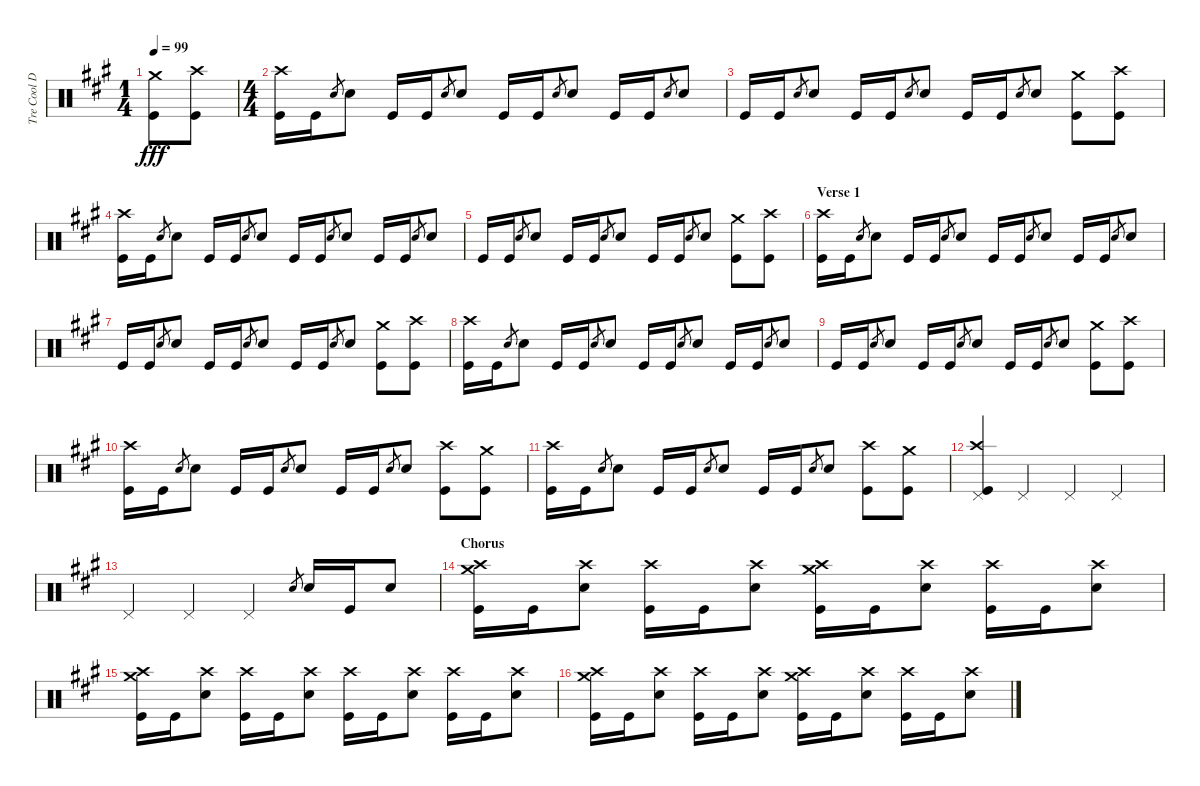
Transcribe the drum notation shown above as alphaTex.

\track ("Tre Cool Drums" "Tre Cool D") {instrument percussion}
\staff {score}
\articulation defaults
\ts (1 4)
\tempo 99
\clef neutral
\ks a
("Kick (hit)" "Crash medium (hit)").8{dy fff} ("Kick (hit)" "Crash high (hit)").8 |
\ts (4 4)
("Crash high (hit)" "Kick (hit)").16 "Kick (hit)".16 "Snare (hit)".8{gr} "Snare (hit) 2".8 "Kick (hit)".16 "Kick (hit)".16 "Snare (hit)".8{gr} "Snare (hit) 2".8 "Kick (hit)".16 "Kick (hit)".16 "Snare (hit)".8{gr} "Snare (hit) 2".8 "Kick (hit)".16 "Kick (hit)".16 "Snare (hit)".8{gr} "Snare (hit) 2".8 |
"Kick (hit)".16 "Kick (hit)".16 "Snare (hit)".8{gr} "Snare (hit) 2".8 "Kick (hit)".16 "Kick (hit)".16 "Snare (hit)".8{gr} "Snare (hit) 2".8 "Kick (hit)".16 "Kick (hit)".16 "Snare (hit)".8{gr} "Snare (hit) 2".8 ("Kick (hit)" "Crash medium (hit)").8 ("Kick (hit)" "Crash high (hit)").8 |
("Crash high (hit)" "Kick (hit)").16 "Kick (hit)".16 "Snare (hit)".8{gr} "Snare (hit) 2".8 "Kick (hit)".16 "Kick (hit)".16 "Snare (hit)".8{gr} "Snare (hit) 2".8 "Kick (hit)".16 "Kick (hit)".16 "Snare (hit)".8{gr} "Snare (hit) 2".8 "Kick (hit)".16 "Kick (hit)".16 "Snare (hit)".8{gr} "Snare (hit) 2".8 |
"Kick (hit)".16 "Kick (hit)".16 "Snare (hit)".8{gr} "Snare (hit) 2".8 "Kick (hit)".16 "Kick (hit)".16 "Snare (hit)".8{gr} "Snare (hit) 2".8 "Kick (hit)".16 "Kick (hit)".16 "Snare (hit)".8{gr} "Snare (hit) 2".8 ("Kick (hit)" "Crash medium (hit)").8 ("Kick (hit)" "Crash high (hit)").8 |
\section ("" "Verse 1")
("Crash high (hit)" "Kick (hit)").16 "Kick (hit)".16 "Snare (hit)".8{gr} "Snare (hit) 2".8 "Kick (hit)".16 "Kick (hit)".16 "Snare (hit)".8{gr} "Snare (hit) 2".8 "Kick (hit)".16 "Kick (hit)".16 "Snare (hit)".8{gr} "Snare (hit) 2".8 "Kick (hit)".16 "Kick (hit)".16 "Snare (hit)".8{gr} "Snare (hit) 2".8 |
"Kick (hit)".16 "Kick (hit)".16 "Snare (hit)".8{gr} "Snare (hit) 2".8 "Kick (hit)".16 "Kick (hit)".16 "Snare (hit)".8{gr} "Snare (hit) 2".8 "Kick (hit)".16 "Kick (hit)".16 "Snare (hit)".8{gr} "Snare (hit) 2".8 ("Kick (hit)" "Crash medium (hit)").8 ("Kick (hit)" "Crash high (hit)").8 |
("Crash high (hit)" "Kick (hit)").16 "Kick (hit)".16 "Snare (hit)".8{gr} "Snare (hit) 2".8 "Kick (hit)".16 "Kick (hit)".16 "Snare (hit)".8{gr} "Snare (hit) 2".8 "Kick (hit)".16 "Kick (hit)".16 "Snare (hit)".8{gr} "Snare (hit) 2".8 "Kick (hit)".16 "Kick (hit)".16 "Snare (hit)".8{gr} "Snare (hit) 2".8 |
"Kick (hit)".16 "Kick (hit)".16 "Snare (hit)".8{gr} "Snare (hit) 2".8 "Kick (hit)".16 "Kick (hit)".16 "Snare (hit)".8{gr} "Snare (hit) 2".8 "Kick (hit)".16 "Kick (hit)".16 "Snare (hit)".8{gr} "Snare (hit) 2".8 ("Kick (hit)" "Crash medium (hit)").8 ("Kick (hit)" "Crash high (hit)").8 |
("Crash high (hit)" "Kick (hit)").16 "Kick (hit)".16 "Snare (hit)".8{gr} "Snare (hit) 2".8 "Kick (hit)".16 "Kick (hit)".16 "Snare (hit)".8{gr} "Snare (hit) 2".8 "Kick (hit)".16 "Kick (hit)".16 "Snare (hit)".8{gr} "Snare (hit) 2".8 ("Kick (hit)" "Crash high (hit)").8 ("Kick (hit)" "Crash medium (hit)").8 |
("Crash high (hit)" "Kick (hit)").16 "Kick (hit)".16 "Snare (hit)".8{gr} "Snare (hit) 2".8 "Kick (hit)".16 "Kick (hit)".16 "Snare (hit)".8{gr} "Snare (hit) 2".8 "Kick (hit)".16 "Kick (hit)".16 "Snare (hit)".8{gr} "Snare (hit) 2".8 ("Kick (hit)" "Crash high (hit)").8 ("Kick (hit)" "Crash medium (hit)").8 |
("Crash high (hit)" "Kick (hit)" "Pedal Hi-Hat (hit)").4 "Pedal Hi-Hat (hit)".4 "Pedal Hi-Hat (hit)".4 "Pedal Hi-Hat (hit)".4 |
"Pedal Hi-Hat (hit)".4 "Pedal Hi-Hat (hit)".4 "Pedal Hi-Hat (hit)".4 "Snare (hit)".8{gr} "Snare (hit) 2".16 "Kick (hit)".16 "Snare (hit) 2".8 |
\section ("" "Chorus")
("Kick (hit)" "Crash high (hit)" "Crash medium (hit)").16 "Kick (hit)".16 ("Snare (hit) 2" "Crash high (hit)").8 ("Kick (hit)" "Crash high (hit)").16 "Kick (hit)".16 ("Snare (hit) 2" "Crash high (hit)").8 ("Kick (hit)" "Crash high (hit)" "Crash medium (hit)").16 "Kick (hit)".16 ("Snare (hit) 2" "Crash high (hit)").8 ("Kick (hit)" "Crash high (hit)").16 "Kick (hit)".16 ("Snare (hit) 2" "Crash high (hit)").8 |
("Kick (hit)" "Crash high (hit)" "Crash medium (hit)").16 "Kick (hit)".16 ("Snare (hit) 2" "Crash high (hit)").8 ("Kick (hit)" "Crash high (hit)").16 "Kick (hit)".16 ("Snare (hit) 2" "Crash high (hit)").8 ("Kick (hit)" "Crash high (hit)").16 "Kick (hit)".16 ("Snare (hit) 2" "Crash high (hit)").8 ("Kick (hit)" "Crash high (hit)").16 "Kick (hit)".16 ("Snare (hit) 2" "Crash high (hit)").8 |
("Kick (hit)" "Crash high (hit)" "Crash medium (hit)").16 "Kick (hit)".16 ("Snare (hit) 2" "Crash high (hit)").8 ("Kick (hit)" "Crash high (hit)").16 "Kick (hit)".16 ("Snare (hit) 2" "Crash high (hit)").8 ("Kick (hit)" "Crash high (hit)" "Crash medium (hit)").16 "Kick (hit)".16 ("Snare (hit) 2" "Crash high (hit)").8 ("Kick (hit)" "Crash high (hit)").16 "Kick (hit)".16 ("Snare (hit) 2" "Crash high (hit)").8
